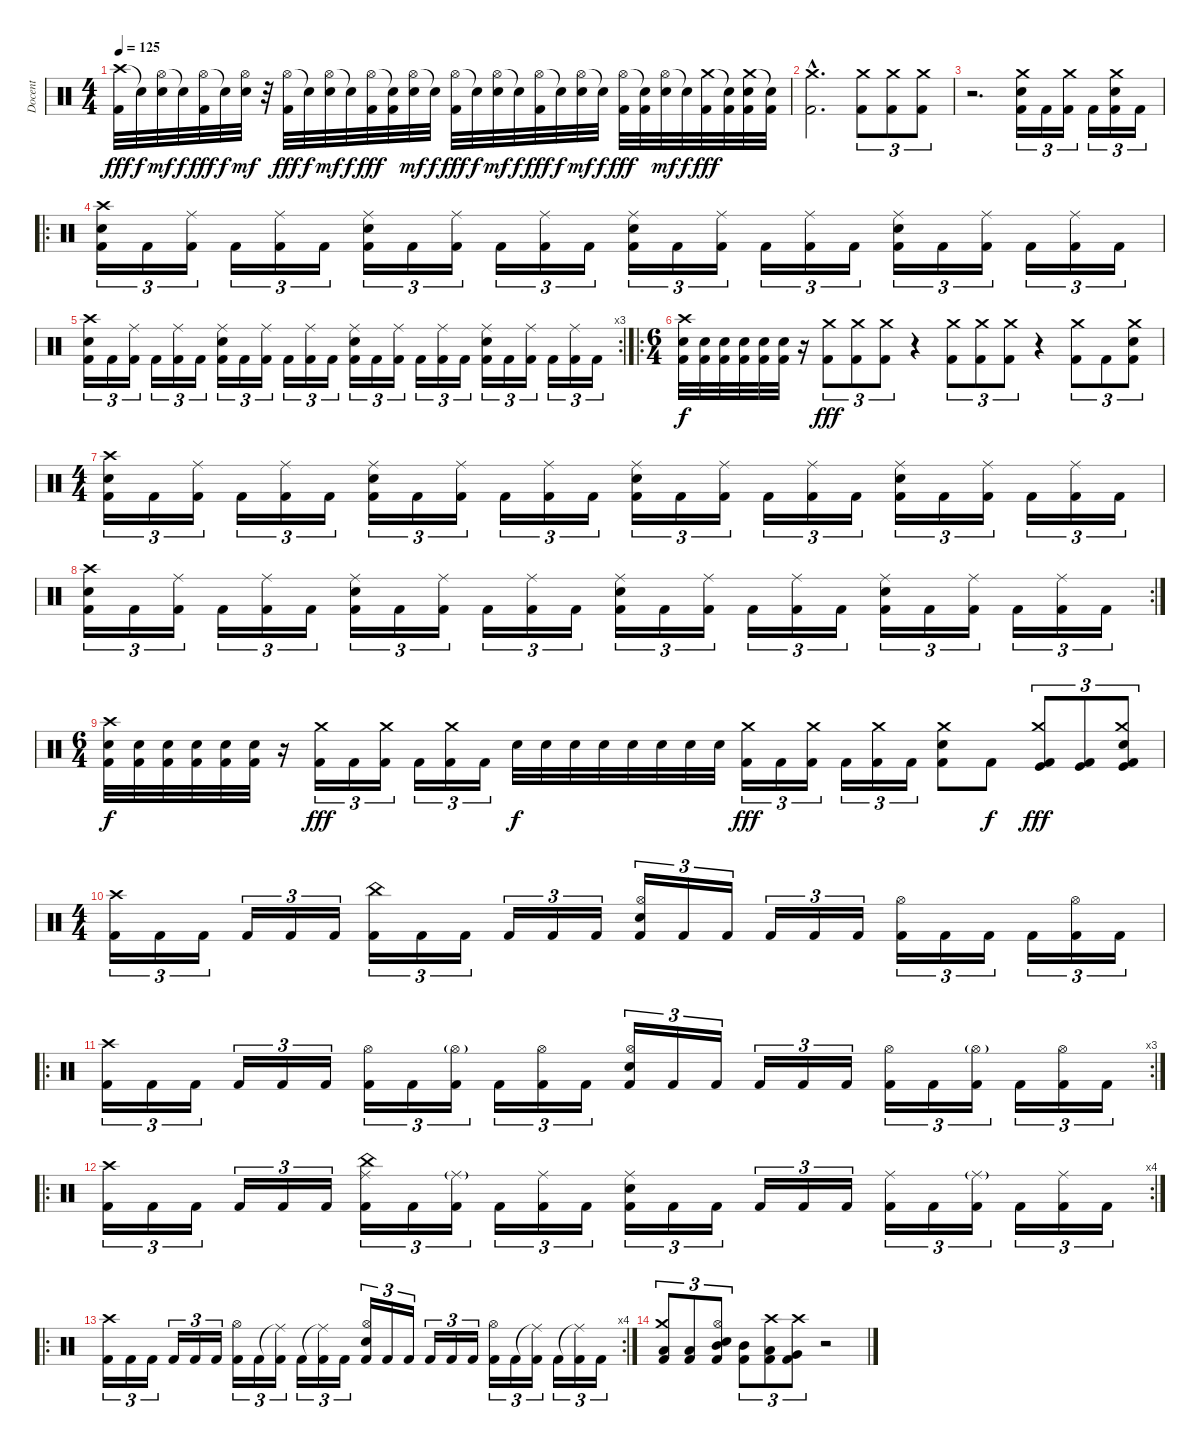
\track ("Docent" "Docent") {instrument percussion}
\staff {score}
\articulation defaults
\ts (4 4)
\tempo 125
\clef neutral
\ks c
("Crash high (hit)" "Kick (hit) 2").32{dy fff} "Snare (hit)"{t}.32{dy f} ("Hi-Hat (open)" "Electric Snare (hit)").32{dy mf} "Snare (hit)"{t}.32{dy f} ("Hi-Hat (open)" "Kick (hit) 2").32{dy fff} "Snare (hit)"{t}.32{dy f} ("Hi-Hat (open)" "Electric Snare (hit)").32{dy mf} r.32 ("Hi-Hat (open)" "Kick (hit) 2").32{dy fff} "Snare (hit)"{t}.32{dy f} ("Hi-Hat (open)" "Electric Snare (hit)").32{dy mf} "Snare (hit)"{t}.32{dy f} ("Hi-Hat (open)" "Kick (hit) 2").32{dy fff} ("Snare (hit)"{t} "Kick (hit) 2").32 ("Hi-Hat (open)" "Electric Snare (hit)").32{dy mf} "Snare (hit)"{t}.32{dy f} ("Hi-Hat (open)" "Kick (hit) 2").32{dy fff} "Snare (hit)"{t}.32{dy f} ("Hi-Hat (open)" "Electric Snare (hit)").32{dy mf} "Snare (hit)"{t}.32{dy f} ("Hi-Hat (open)" "Kick (hit) 2").32{dy fff} "Snare (hit)"{t}.32{dy f} ("Hi-Hat (open)" "Electric Snare (hit)").32{dy mf} "Snare (hit)"{t}.32{dy f} ("Hi-Hat (open)" "Kick (hit) 2").32{dy fff} ("Snare (hit)"{t} "Kick (hit) 2").32 ("Hi-Hat (open)" "Electric Snare (hit)").32{dy mf} "Snare (hit)"{t}.32{dy f} ("Crash medium (hit)" "Kick (hit) 2").32{dy fff} ("Snare (hit)"{t} "Kick (hit) 2").32 ("Crash medium (hit)" "Electric Snare (hit)" "Kick (hit) 2").32 ("Snare (hit)"{t} "Kick (hit) 2").32 |
("Kick (hit) 2"{hac} "Crash medium (hit)"{hac}).2{d} ("Crash medium (hit)" "Kick (hit) 2").8{tu (3 2)} ("Crash medium (hit)" "Kick (hit) 2").8{tu (3 2)} ("Crash medium (hit)" "Kick (hit) 2").8{tu (3 2)} |
r.2{d} ("Crash medium (hit)" "Electric Snare (hit)" "Kick (hit) 2").16{tu (3 2)} "Kick (hit) 2".16{tu (3 2)} ("Crash medium (hit)" "Kick (hit) 2").16{tu (3 2)} "Kick (hit) 2".16{tu (3 2)} ("Crash medium (hit)" "Electric Snare (hit)" "Kick (hit) 2").16{tu (3 2)} "Kick (hit) 2".16{tu (3 2)} |
\ro
("Crash high (hit)" "Electric Snare (hit)" "Kick (hit) 2").16{tu (3 2)} "Kick (hit) 2".16{tu (3 2)} ("Ride (middle)" "Kick (hit) 2").16{tu (3 2)} "Kick (hit) 2".16{tu (3 2)} ("Ride (middle)" "Kick (hit) 2").16{tu (3 2)} "Kick (hit) 2".16{tu (3 2)} ("Ride (middle)" "Electric Snare (hit)" "Kick (hit) 2").16{tu (3 2)} "Kick (hit) 2".16{tu (3 2)} ("Ride (middle)" "Kick (hit) 2").16{tu (3 2)} "Kick (hit) 2".16{tu (3 2)} ("Ride (middle)" "Kick (hit) 2").16{tu (3 2)} "Kick (hit) 2".16{tu (3 2)} ("Ride (middle)" "Electric Snare (hit)" "Kick (hit) 2").16{tu (3 2)} "Kick (hit) 2".16{tu (3 2)} ("Ride (middle)" "Kick (hit) 2").16{tu (3 2)} "Kick (hit) 2".16{tu (3 2)} ("Ride (middle)" "Kick (hit) 2").16{tu (3 2)} "Kick (hit) 2".16{tu (3 2)} ("Ride (middle)" "Electric Snare (hit)" "Kick (hit) 2").16{tu (3 2)} "Kick (hit) 2".16{tu (3 2)} ("Ride (middle)" "Kick (hit) 2").16{tu (3 2)} "Kick (hit) 2".16{tu (3 2)} ("Ride (middle)" "Kick (hit) 2").16{tu (3 2)} "Kick (hit) 2".16{tu (3 2)} |
\rc 3
("Crash high (hit)" "Electric Snare (hit)" "Kick (hit) 2").16{tu (3 2)} "Kick (hit) 2".16{tu (3 2)} ("Ride (middle)" "Kick (hit) 2").16{tu (3 2)} "Kick (hit) 2".16{tu (3 2)} ("Ride (middle)" "Kick (hit) 2").16{tu (3 2)} "Kick (hit) 2".16{tu (3 2)} ("Ride (middle)" "Electric Snare (hit)" "Kick (hit) 2").16{tu (3 2)} "Kick (hit) 2".16{tu (3 2)} ("Ride (middle)" "Kick (hit) 2").16{tu (3 2)} "Kick (hit) 2".16{tu (3 2)} ("Ride (middle)" "Kick (hit) 2").16{tu (3 2)} "Kick (hit) 2".16{tu (3 2)} ("Ride (middle)" "Electric Snare (hit)" "Kick (hit) 2").16{tu (3 2)} "Kick (hit) 2".16{tu (3 2)} ("Ride (middle)" "Kick (hit) 2").16{tu (3 2)} "Kick (hit) 2".16{tu (3 2)} ("Ride (middle)" "Kick (hit) 2").16{tu (3 2)} "Kick (hit) 2".16{tu (3 2)} ("Ride (middle)" "Electric Snare (hit)" "Kick (hit) 2").16{tu (3 2)} "Kick (hit) 2".16{tu (3 2)} ("Ride (middle)" "Kick (hit) 2").16{tu (3 2)} "Kick (hit) 2".16{tu (3 2)} ("Ride (middle)" "Kick (hit) 2").16{tu (3 2)} "Kick (hit) 2".16{tu (3 2)} |
\ro
\ts (6 4)
("Crash high (hit)" "Electric Snare (hit)" "Kick (hit) 2").32{dy f} ("Electric Snare (hit)" "Kick (hit) 2").32 ("Electric Snare (hit)" "Kick (hit) 2").32 ("Electric Snare (hit)" "Kick (hit) 2").32 ("Electric Snare (hit)" "Kick (hit) 2").32 ("Electric Snare (hit)" "Kick (hit) 2").32 r.16 ("Crash medium (hit)" "Kick (hit) 2").8{tu (3 2) dy fff} ("Crash medium (hit)" "Kick (hit) 2").8{tu (3 2)} ("Crash medium (hit)" "Kick (hit) 2").8{tu (3 2)} r.4 ("Crash medium (hit)" "Kick (hit) 2").8{tu (3 2)} ("Crash medium (hit)" "Kick (hit) 2").8{tu (3 2)} ("Crash medium (hit)" "Kick (hit) 2").8{tu (3 2)} r.4 ("Crash medium (hit)" "Kick (hit) 2").8{tu (3 2)} "Kick (hit) 2".8{tu (3 2)} ("Crash medium (hit)" "Electric Snare (hit)" "Kick (hit) 2").8{tu (3 2)} |
\ts (4 4)
("Crash high (hit)" "Electric Snare (hit)" "Kick (hit) 2").16{tu (3 2)} "Kick (hit) 2".16{tu (3 2)} ("Ride (middle)" "Kick (hit) 2").16{tu (3 2)} "Kick (hit) 2".16{tu (3 2)} ("Ride (middle)" "Kick (hit) 2").16{tu (3 2)} "Kick (hit) 2".16{tu (3 2)} ("Ride (middle)" "Electric Snare (hit)" "Kick (hit) 2").16{tu (3 2)} "Kick (hit) 2".16{tu (3 2)} ("Ride (middle)" "Kick (hit) 2").16{tu (3 2)} "Kick (hit) 2".16{tu (3 2)} ("Ride (middle)" "Kick (hit) 2").16{tu (3 2)} "Kick (hit) 2".16{tu (3 2)} ("Ride (middle)" "Electric Snare (hit)" "Kick (hit) 2").16{tu (3 2)} "Kick (hit) 2".16{tu (3 2)} ("Ride (middle)" "Kick (hit) 2").16{tu (3 2)} "Kick (hit) 2".16{tu (3 2)} ("Ride (middle)" "Kick (hit) 2").16{tu (3 2)} "Kick (hit) 2".16{tu (3 2)} ("Ride (middle)" "Electric Snare (hit)" "Kick (hit) 2").16{tu (3 2)} "Kick (hit) 2".16{tu (3 2)} ("Ride (middle)" "Kick (hit) 2").16{tu (3 2)} "Kick (hit) 2".16{tu (3 2)} ("Ride (middle)" "Kick (hit) 2").16{tu (3 2)} "Kick (hit) 2".16{tu (3 2)} |
\rc 2
("Crash high (hit)" "Electric Snare (hit)" "Kick (hit) 2").16{tu (3 2)} "Kick (hit) 2".16{tu (3 2)} ("Ride (middle)" "Kick (hit) 2").16{tu (3 2)} "Kick (hit) 2".16{tu (3 2)} ("Ride (middle)" "Kick (hit) 2").16{tu (3 2)} "Kick (hit) 2".16{tu (3 2)} ("Ride (middle)" "Electric Snare (hit)" "Kick (hit) 2").16{tu (3 2)} "Kick (hit) 2".16{tu (3 2)} ("Ride (middle)" "Kick (hit) 2").16{tu (3 2)} "Kick (hit) 2".16{tu (3 2)} ("Ride (middle)" "Kick (hit) 2").16{tu (3 2)} "Kick (hit) 2".16{tu (3 2)} ("Ride (middle)" "Electric Snare (hit)" "Kick (hit) 2").16{tu (3 2)} "Kick (hit) 2".16{tu (3 2)} ("Ride (middle)" "Kick (hit) 2").16{tu (3 2)} "Kick (hit) 2".16{tu (3 2)} ("Ride (middle)" "Kick (hit) 2").16{tu (3 2)} "Kick (hit) 2".16{tu (3 2)} ("Ride (middle)" "Electric Snare (hit)" "Kick (hit) 2").16{tu (3 2)} "Kick (hit) 2".16{tu (3 2)} ("Ride (middle)" "Kick (hit) 2").16{tu (3 2)} "Kick (hit) 2".16{tu (3 2)} ("Ride (middle)" "Kick (hit) 2").16{tu (3 2)} "Kick (hit) 2".16{tu (3 2)} |
\ts (6 4)
("Crash high (hit)" "Electric Snare (hit)" "Kick (hit) 2").32{dy f} ("Electric Snare (hit)" "Kick (hit) 2").32 ("Electric Snare (hit)" "Kick (hit) 2").32 ("Electric Snare (hit)" "Kick (hit) 2").32 ("Electric Snare (hit)" "Kick (hit) 2").32 ("Electric Snare (hit)" "Kick (hit) 2").32 r.16 ("Crash medium (hit)" "Kick (hit) 2").16{tu (3 2) dy fff} "Kick (hit) 2".16{tu (3 2)} ("Crash medium (hit)" "Kick (hit) 2").16{tu (3 2)} "Kick (hit) 2".16{tu (3 2)} ("Crash medium (hit)" "Kick (hit) 2").16{tu (3 2)} "Kick (hit) 2".16{tu (3 2)} "Electric Snare (hit)".32{dy f} "Electric Snare (hit)".32 "Electric Snare (hit)".32 "Electric Snare (hit)".32 "Electric Snare (hit)".32 "Electric Snare (hit)".32 "Electric Snare (hit)".32 "Electric Snare (hit)".32 ("Crash medium (hit)" "Kick (hit) 2").16{tu (3 2) dy fff} "Kick (hit) 2".16{tu (3 2)} ("Crash medium (hit)" "Kick (hit) 2").16{tu (3 2)} "Kick (hit) 2".16{tu (3 2)} ("Crash medium (hit)" "Kick (hit) 2").16{tu (3 2)} "Kick (hit) 2".16{tu (3 2)} ("Crash medium (hit)" "Electric Snare (hit)" "Kick (hit) 2").8 "Kick (hit) 2".8{dy f} ("Crash medium (hit)" "Kick (hit)" "Kick (hit) 2").8{tu (3 2) dy fff} ("Kick (hit)" "Kick (hit) 2").8{tu (3 2)} ("Crash medium (hit)" "Electric Snare (hit)" "Kick (hit)" "Kick (hit) 2").8{tu (3 2)} |
\ts (4 4)
("Crash high (hit)" "Kick (hit) 2").16{tu (3 2)} "Kick (hit) 2".16{tu (3 2)} "Kick (hit) 2".16{tu (3 2)} "Kick (hit) 2".16{tu (3 2)} "Kick (hit) 2".16{tu (3 2)} "Kick (hit) 2".16{tu (3 2)} ("China (hit)" "Kick (hit) 2").16{tu (3 2)} "Kick (hit) 2".16{tu (3 2)} "Kick (hit) 2".16{tu (3 2)} "Kick (hit) 2".16{tu (3 2)} "Kick (hit) 2".16{tu (3 2)} "Kick (hit) 2".16{tu (3 2)} ("Hi-Hat (open)" "Electric Snare (hit)" "Kick (hit) 2").16{tu (3 2)} "Kick (hit) 2".16{tu (3 2)} "Kick (hit) 2".16{tu (3 2)} "Kick (hit) 2".16{tu (3 2)} "Kick (hit) 2".16{tu (3 2)} "Kick (hit) 2".16{tu (3 2)} ("Hi-Hat (open)" "Kick (hit) 2").16{tu (3 2)} "Kick (hit) 2".16{tu (3 2)} "Kick (hit) 2".16{tu (3 2)} "Kick (hit) 2".16{tu (3 2)} ("Hi-Hat (open)" "Kick (hit) 2").16{tu (3 2)} "Kick (hit) 2".16{tu (3 2)} |
\ro
\rc 3
("Crash high (hit)" "Kick (hit) 2").16{tu (3 2)} "Kick (hit) 2".16{tu (3 2)} "Kick (hit) 2".16{tu (3 2)} "Kick (hit) 2".16{tu (3 2)} "Kick (hit) 2".16{tu (3 2)} "Kick (hit) 2".16{tu (3 2)} ("Hi-Hat (open)" "Kick (hit) 2").16{tu (3 2)} "Kick (hit) 2".16{tu (3 2)} ("Hi-Hat (open)"{g} "Kick (hit) 2").16{tu (3 2)} "Kick (hit) 2".16{tu (3 2)} ("Hi-Hat (open)" "Kick (hit) 2").16{tu (3 2)} "Kick (hit) 2".16{tu (3 2)} ("Hi-Hat (open)" "Electric Snare (hit)" "Kick (hit) 2").16{tu (3 2)} "Kick (hit) 2".16{tu (3 2)} "Kick (hit) 2".16{tu (3 2)} "Kick (hit) 2".16{tu (3 2)} "Kick (hit) 2".16{tu (3 2)} "Kick (hit) 2".16{tu (3 2)} ("Hi-Hat (open)" "Kick (hit) 2").16{tu (3 2)} "Kick (hit) 2".16{tu (3 2)} ("Hi-Hat (open)"{g} "Kick (hit) 2").16{tu (3 2)} "Kick (hit) 2".16{tu (3 2)} ("Hi-Hat (open)" "Kick (hit) 2").16{tu (3 2)} "Kick (hit) 2".16{tu (3 2)} |
\ro
\rc 4
("Crash high (hit)" "Kick (hit) 2").16{tu (3 2)} "Kick (hit) 2".16{tu (3 2)} "Kick (hit) 2".16{tu (3 2)} "Kick (hit) 2".16{tu (3 2)} "Kick (hit) 2".16{tu (3 2)} "Kick (hit) 2".16{tu (3 2)} ("Ride (middle)" "China (hit)" "Kick (hit) 2").16{tu (3 2)} "Kick (hit) 2".16{tu (3 2)} ("Ride (middle)"{g} "Kick (hit) 2").16{tu (3 2)} "Kick (hit) 2".16{tu (3 2)} ("Ride (middle)" "Kick (hit) 2").16{tu (3 2)} "Kick (hit) 2".16{tu (3 2)} ("Ride (middle)" "Electric Snare (hit)" "Kick (hit) 2").16{tu (3 2)} "Kick (hit) 2".16{tu (3 2)} "Kick (hit) 2".16{tu (3 2)} "Kick (hit) 2".16{tu (3 2)} "Kick (hit) 2".16{tu (3 2)} "Kick (hit) 2".16{tu (3 2)} ("Ride (middle)" "Kick (hit) 2").16{tu (3 2)} "Kick (hit) 2".16{tu (3 2)} ("Ride (middle)"{g} "Kick (hit) 2").16{tu (3 2)} "Kick (hit) 2".16{tu (3 2)} ("Ride (middle)" "Kick (hit) 2").16{tu (3 2)} "Kick (hit) 2".16{tu (3 2)} |
\ro
\rc 4
("Crash high (hit)" "Kick (hit) 2").16{tu (3 2)} "Kick (hit) 2".16{tu (3 2)} "Kick (hit) 2".16{tu (3 2)} "Kick (hit) 2".16{tu (3 2)} "Kick (hit) 2".16{tu (3 2)} "Kick (hit) 2".16{tu (3 2)} ("Hi-Hat (open)" "Kick (hit) 2").16{tu (3 2)} "Kick (hit) 2".16{tu (3 2)} ("Ride (middle)"{t} "Kick (hit) 2").16{tu (3 2)} "Kick (hit) 2".16{tu (3 2)} ("Ride (middle)"{t} "Kick (hit) 2").16{tu (3 2)} "Kick (hit) 2".16{tu (3 2)} ("Hi-Hat (open)" "Electric Snare (hit)" "Kick (hit) 2").16{tu (3 2)} "Kick (hit) 2".16{tu (3 2)} "Kick (hit) 2".16{tu (3 2)} "Kick (hit) 2".16{tu (3 2)} "Kick (hit) 2".16{tu (3 2)} "Kick (hit) 2".16{tu (3 2)} ("Hi-Hat (open)" "Kick (hit) 2").16{tu (3 2)} "Kick (hit) 2".16{tu (3 2)} ("Ride (middle)"{t} "Kick (hit) 2").16{tu (3 2)} "Kick (hit) 2".16{tu (3 2)} ("Ride (middle)"{t} "Kick (hit) 2").16{tu (3 2)} "Kick (hit) 2".16{tu (3 2)} |
("Crash medium (hit)" "Low Tom (hit)" "Kick (hit) 2").8{tu (3 2)} ("Low Tom (hit)" "Kick (hit) 2").8{tu (3 2)} ("Hi-Hat (open)" "Electric Snare (hit)" "Mid Tom (hit)" "Kick (hit) 2").8{tu (3 2)} ("Mid Tom (hit)" "Kick (hit) 2").8{tu (3 2)} ("Crash high (hit)" "Low Tom (hit)" "Kick (hit) 2").8{tu (3 2)} ("Crash high (hit)" "Very Low Tom (hit)" "Kick (hit) 2").8{tu (3 2)} r.2
